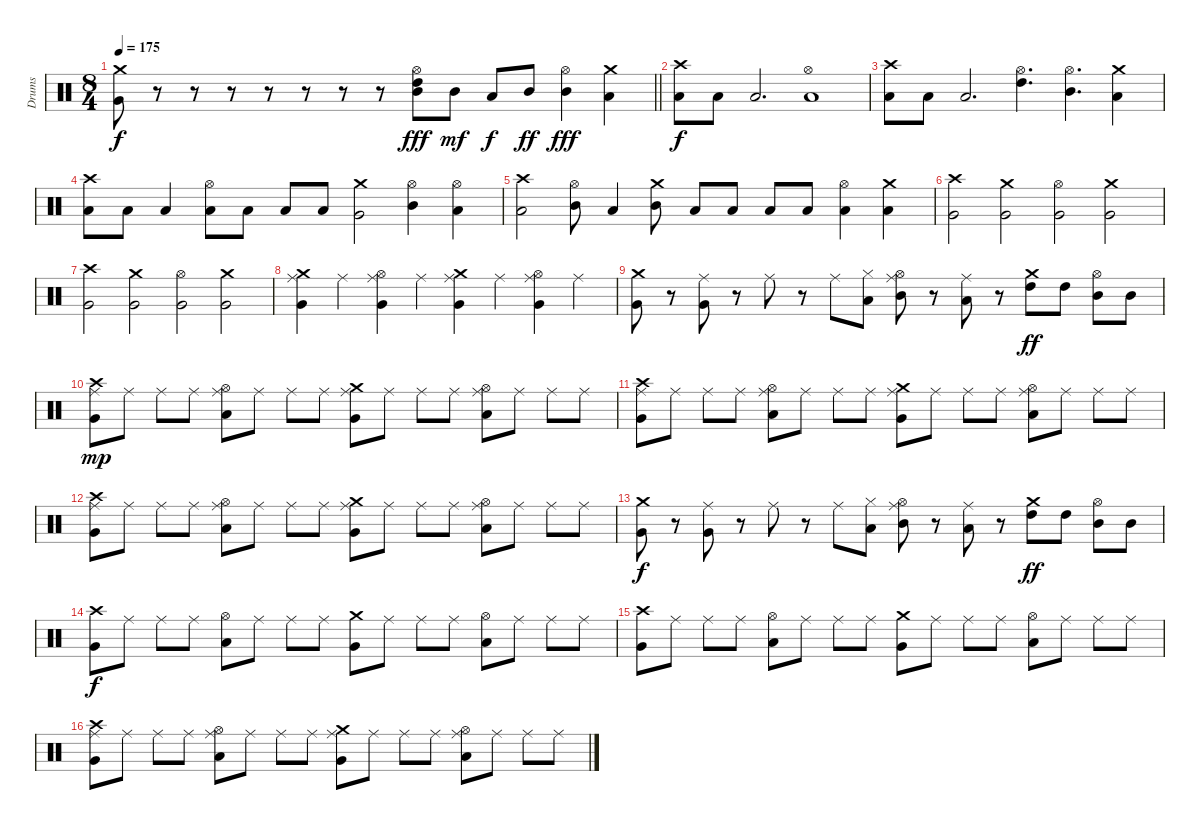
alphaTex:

\track ("Drums" "Drums") {instrument percussion}
\staff {score}
\articulation defaults
\ts (8 4)
\tempo 175
\clef neutral
\barLineRight lightlight
\ks c
("Crash medium (hit)" "Very Low Tom (hit)").8{dy f} r.8 r.8 r.8 r.8 r.8 r.8 r.8 ("Hi-Hat (open)" "High Tom (hit)" "Mid Tom (hit)").8{dy fff} "Mid Tom (hit)".8{dy mf} "Low Tom (hit)".8{dy f} "Mid Tom (hit)".8{dy ff} ("Hi-Hat (open)" "Mid Tom (hit)").4{dy fff} ("Crash medium (hit)" "Low Tom (hit)").4 |
\section ("" "")
("Crash high (hit)" "Low Tom (hit)").8{dy f} "Low Tom (hit)".8 "Low Tom (hit)".2{d} ("Hi-Hat (open)" "Low Tom (hit)").1 |
("Crash high (hit)" "Low Tom (hit)").8 "Low Tom (hit)".8 "Low Tom (hit)".2{d} ("Hi-Hat (open)" "High Tom (hit)").4{d} ("Hi-Hat (open)" "Mid Tom (hit)").4{d} ("Crash medium (hit)" "Low Tom (hit)").4 |
("Crash high (hit)" "Low Tom (hit)").8 "Low Tom (hit)".8 "Low Tom (hit)".4 ("Hi-Hat (open)" "Low Tom (hit)").8 "Low Tom (hit)".8 "Low Tom (hit)".8 "Low Tom (hit)".8 ("Crash medium (hit)" "Very Low Tom (hit)").2 ("Hi-Hat (open)" "Mid Tom (hit)").4 ("Hi-Hat (open)" "Low Tom (hit)").4 |
("Crash high (hit)" "Low Tom (hit)").2 ("Hi-Hat (open)" "Mid Tom (hit)").8 "Low Tom (hit)".4 ("Crash medium (hit)" "Mid Tom (hit)").8 "Low Tom (hit)".8 "Low Tom (hit)".8 "Low Tom (hit)".8 "Low Tom (hit)".8 ("Hi-Hat (open)" "Low Tom (hit)").4 ("Crash medium (hit)" "Low Tom (hit)").4 |
("Crash high (hit)" "Very Low Tom (hit)").2 ("Crash medium (hit)" "Very Low Tom (hit)").2 ("Hi-Hat (open)" "Very Low Tom (hit)").2 ("Crash medium (hit)" "Very Low Tom (hit)").2 |
("Crash high (hit)" "Very Low Tom (hit)").2 ("Crash medium (hit)" "Very Low Tom (hit)").2 ("Hi-Hat (open)" "Very Low Tom (hit)").2 ("Crash medium (hit)" "Very Low Tom (hit)").2 |
("Crash medium (hit)" "Ride (middle)" "Very Low Tom (hit)").4 "Ride (middle)".4 ("Hi-Hat (open)" "Ride (middle)" "Very Low Tom (hit)").4 "Ride (middle)".4 ("Crash medium (hit)" "Ride (middle)" "Very Low Tom (hit)").4 "Ride (middle)".4 ("Hi-Hat (open)" "Ride (middle)" "Very Low Tom (hit)").4 "Ride (middle)".4 |
("Crash medium (hit)" "Very Low Tom (hit)").8 r.8 ("Ride (middle)" "Very Low Tom (hit)").8 r.8 "Ride (middle)".8 r.8 "Ride (middle)".8 ("Hi-Hat (closed)" "Low Tom (hit)").8 ("Hi-Hat (open)" "Ride (middle)" "Mid Tom (hit)").8 r.8 ("Ride (middle)" "Low Tom (hit)").8 r.8 ("Crash medium (hit)" "High Tom (hit)").8{dy ff} "High Tom (hit)".8 ("Hi-Hat (open)" "Mid Tom (hit)").8 "Mid Tom (hit)".8 |
("Crash high (hit)" "Ride (middle)" "Very Low Tom (hit)").8{dy mp} "Ride (middle)".8 "Ride (middle)".8 "Ride (middle)".8 ("Hi-Hat (open)" "Ride (middle)" "Low Tom (hit)").8 "Ride (middle)".8 "Ride (middle)".8 "Ride (middle)".8 ("Crash medium (hit)" "Ride (middle)" "Very Low Tom (hit)").8 "Ride (middle)".8 "Ride (middle)".8 "Ride (middle)".8 ("Hi-Hat (open)" "Ride (middle)" "Low Tom (hit)").8 "Ride (middle)".8 "Ride (middle)".8 "Ride (middle)".8 |
("Crash high (hit)" "Ride (middle)" "Very Low Tom (hit)").8 "Ride (middle)".8 "Ride (middle)".8 "Ride (middle)".8 ("Hi-Hat (open)" "Ride (middle)" "Low Tom (hit)").8 "Ride (middle)".8 "Ride (middle)".8 "Ride (middle)".8 ("Crash medium (hit)" "Ride (middle)" "Very Low Tom (hit)").8 "Ride (middle)".8 "Ride (middle)".8 "Ride (middle)".8 ("Hi-Hat (open)" "Ride (middle)" "Low Tom (hit)").8 "Ride (middle)".8 "Ride (middle)".8 "Ride (middle)".8 |
("Crash high (hit)" "Ride (middle)" "Very Low Tom (hit)").8 "Ride (middle)".8 "Ride (middle)".8 "Ride (middle)".8 ("Hi-Hat (open)" "Ride (middle)" "Low Tom (hit)").8 "Ride (middle)".8 "Ride (middle)".8 "Ride (middle)".8 ("Crash medium (hit)" "Ride (middle)" "Very Low Tom (hit)").8 "Ride (middle)".8 "Ride (middle)".8 "Ride (middle)".8 ("Hi-Hat (open)" "Ride (middle)" "Low Tom (hit)").8 "Ride (middle)".8 "Ride (middle)".8 "Ride (middle)".8 |
("Crash medium (hit)" "Very Low Tom (hit)").8{dy f} r.8 ("Ride (middle)" "Very Low Tom (hit)").8 r.8 "Ride (middle)".8 r.8 "Ride (middle)".8 ("Hi-Hat (closed)" "Low Tom (hit)").8 ("Hi-Hat (open)" "Ride (middle)" "Mid Tom (hit)").8 r.8 ("Ride (middle)" "Low Tom (hit)").8 r.8 ("Crash medium (hit)" "High Tom (hit)").8{dy ff} "High Tom (hit)".8 ("Hi-Hat (open)" "Mid Tom (hit)").8 "Mid Tom (hit)".8 |
("Crash high (hit)" "Very Low Tom (hit)").8{dy f} "Ride (middle)".8 "Ride (middle)".8 "Ride (middle)".8 ("Hi-Hat (open)" "Low Tom (hit)").8 "Ride (middle)".8 "Ride (middle)".8 "Ride (middle)".8 ("Crash medium (hit)" "Very Low Tom (hit)").8 "Ride (middle)".8 "Ride (middle)".8 "Ride (middle)".8 ("Hi-Hat (open)" "Low Tom (hit)").8 "Ride (middle)".8 "Ride (middle)".8 "Ride (middle)".8 |
("Crash high (hit)" "Very Low Tom (hit)").8 "Ride (middle)".8 "Ride (middle)".8 "Ride (middle)".8 ("Hi-Hat (open)" "Low Tom (hit)").8 "Ride (middle)".8 "Ride (middle)".8 "Ride (middle)".8 ("Crash medium (hit)" "Very Low Tom (hit)").8 "Ride (middle)".8 "Ride (middle)".8 "Ride (middle)".8 ("Hi-Hat (open)" "Low Tom (hit)").8 "Ride (middle)".8 "Ride (middle)".8 "Ride (middle)".8 |
("Crash high (hit)" "Ride (middle)" "Very Low Tom (hit)").8 "Ride (middle)".8 "Ride (middle)".8 "Ride (middle)".8 ("Hi-Hat (open)" "Ride (middle)" "Low Tom (hit)").8 "Ride (middle)".8 "Ride (middle)".8 "Ride (middle)".8 ("Crash medium (hit)" "Ride (middle)" "Very Low Tom (hit)").8 "Ride (middle)".8 "Ride (middle)".8 "Ride (middle)".8 ("Hi-Hat (open)" "Ride (middle)" "Low Tom (hit)").8 "Ride (middle)".8 "Ride (middle)".8 "Ride (middle)".8
